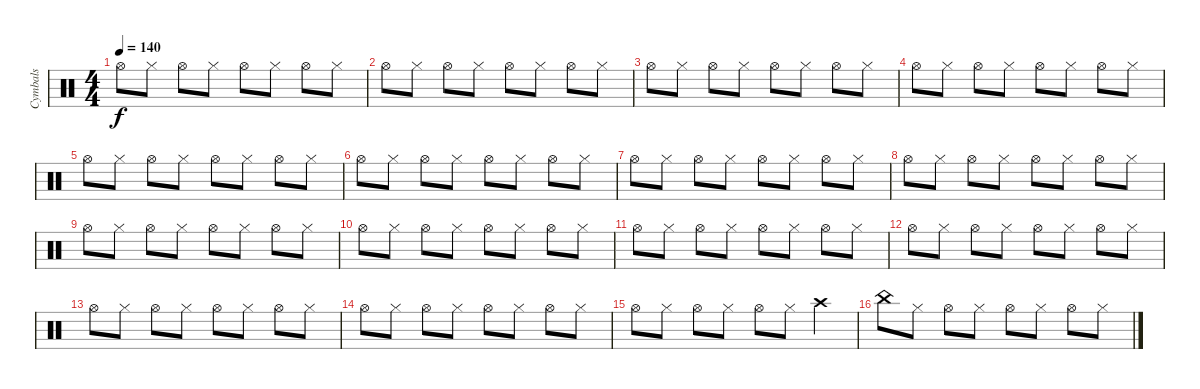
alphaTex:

\track ("Cymbals" "Cymbals") {instrument percussion}
\staff {score}
\articulation defaults
\ts (4 4)
\tempo 140
\clef neutral
\ks c "Hi-Hat (open)".8{dy f} "Hi-Hat (closed)".8 "Hi-Hat (open)".8 "Hi-Hat (closed)".8 "Hi-Hat (open)".8 "Hi-Hat (closed)".8 "Hi-Hat (open)".8 "Hi-Hat (closed)".8
|
"Hi-Hat (open)".8 "Hi-Hat (closed)".8 "Hi-Hat (open)".8 "Hi-Hat (closed)".8 "Hi-Hat (open)".8 "Hi-Hat (closed)".8 "Hi-Hat (open)".8 "Hi-Hat (closed)".8 |
"Hi-Hat (open)".8 "Hi-Hat (closed)".8 "Hi-Hat (open)".8 "Hi-Hat (closed)".8 "Hi-Hat (open)".8 "Hi-Hat (closed)".8 "Hi-Hat (open)".8 "Hi-Hat (closed)".8 |
"Hi-Hat (open)".8 "Hi-Hat (closed)".8 "Hi-Hat (open)".8 "Hi-Hat (closed)".8 "Hi-Hat (open)".8 "Hi-Hat (closed)".8 "Hi-Hat (open)".8 "Hi-Hat (closed)".8 |
"Hi-Hat (open)".8 "Hi-Hat (closed)".8 "Hi-Hat (open)".8 "Hi-Hat (closed)".8 "Hi-Hat (open)".8 "Hi-Hat (closed)".8 "Hi-Hat (open)".8 "Hi-Hat (closed)".8 |
"Hi-Hat (open)".8 "Hi-Hat (closed)".8 "Hi-Hat (open)".8 "Hi-Hat (closed)".8 "Hi-Hat (open)".8 "Hi-Hat (closed)".8 "Hi-Hat (open)".8 "Hi-Hat (closed)".8 |
"Hi-Hat (open)".8 "Hi-Hat (closed)".8 "Hi-Hat (open)".8 "Hi-Hat (closed)".8 "Hi-Hat (open)".8 "Hi-Hat (closed)".8 "Hi-Hat (open)".8 "Hi-Hat (closed)".8 |
"Hi-Hat (open)".8 "Hi-Hat (closed)".8 "Hi-Hat (open)".8 "Hi-Hat (closed)".8 "Hi-Hat (open)".8 "Hi-Hat (closed)".8 "Hi-Hat (open)".8 "Hi-Hat (closed)".8 |
"Hi-Hat (open)".8 "Hi-Hat (closed)".8 "Hi-Hat (open)".8 "Hi-Hat (closed)".8 "Hi-Hat (open)".8 "Hi-Hat (closed)".8 "Hi-Hat (open)".8 "Hi-Hat (closed)".8 |
"Hi-Hat (open)".8 "Hi-Hat (closed)".8 "Hi-Hat (open)".8 "Hi-Hat (closed)".8 "Hi-Hat (open)".8 "Hi-Hat (closed)".8 "Hi-Hat (open)".8 "Hi-Hat (closed)".8 |
"Hi-Hat (open)".8 "Hi-Hat (closed)".8 "Hi-Hat (open)".8 "Hi-Hat (closed)".8 "Hi-Hat (open)".8 "Hi-Hat (closed)".8 "Hi-Hat (open)".8 "Hi-Hat (closed)".8 |
"Hi-Hat (open)".8 "Hi-Hat (closed)".8 "Hi-Hat (open)".8 "Hi-Hat (closed)".8 "Hi-Hat (open)".8 "Hi-Hat (closed)".8 "Hi-Hat (open)".8 "Hi-Hat (closed)".8 |
"Hi-Hat (open)".8 "Hi-Hat (closed)".8 "Hi-Hat (open)".8 "Hi-Hat (closed)".8 "Hi-Hat (open)".8 "Hi-Hat (closed)".8 "Hi-Hat (open)".8 "Hi-Hat (closed)".8 |
"Hi-Hat (open)".8 "Hi-Hat (closed)".8 "Hi-Hat (open)".8 "Hi-Hat (closed)".8 "Hi-Hat (open)".8 "Hi-Hat (closed)".8 "Hi-Hat (open)".8 "Hi-Hat (closed)".8 |
"Hi-Hat (open)".8 "Hi-Hat (closed)".8 "Hi-Hat (open)".8 "Hi-Hat (closed)".8 "Hi-Hat (open)".8 "Hi-Hat (closed)".8 "Crash high (hit)".4 |
"China (hit)".8 "Hi-Hat (closed)".8 "Hi-Hat (open)".8 "Hi-Hat (closed)".8 "Hi-Hat (open)".8 "Hi-Hat (closed)".8 "Hi-Hat (open)".8 "Hi-Hat (closed)".8
